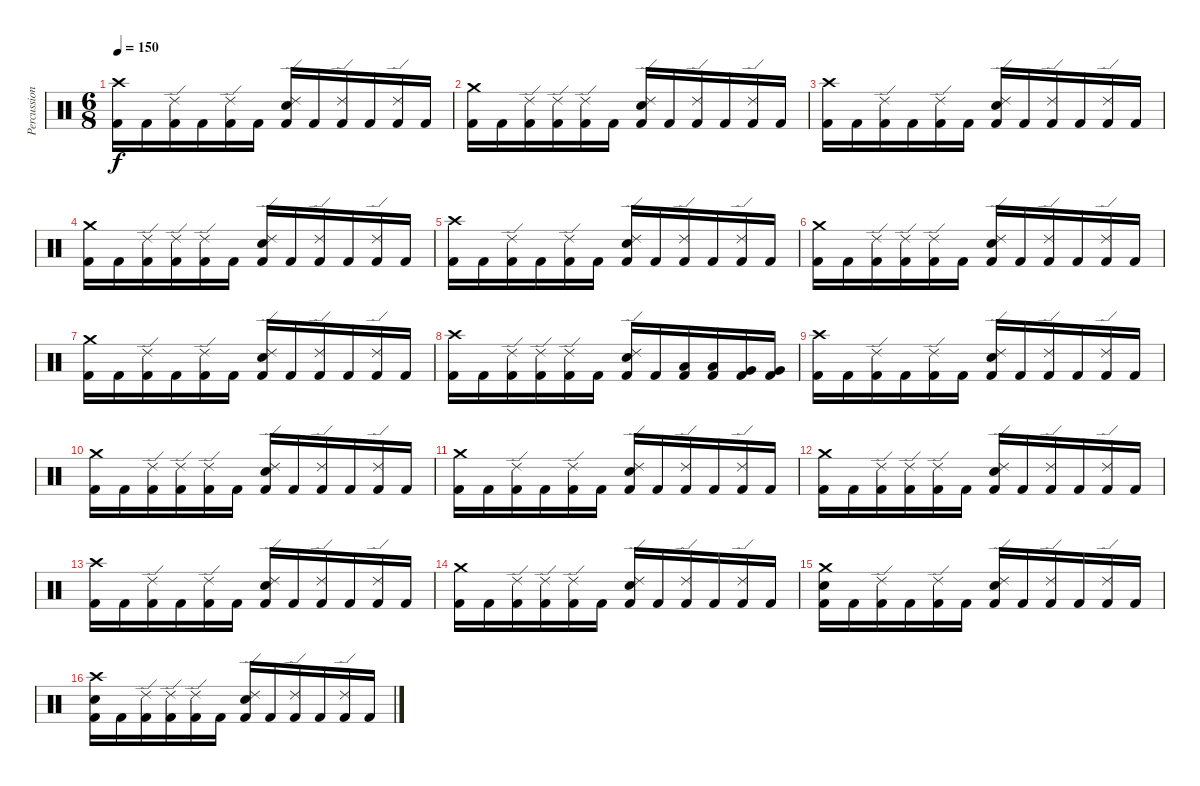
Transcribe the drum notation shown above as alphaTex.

\track ("Percussion" "Percussion") {instrument percussion}
\staff {score}
\articulation defaults
\ts (6 8)
\tempo 150
\clef neutral
\ks c
("Crash high (hit)" "Kick (hit) 2").16{dy f} "Kick (hit) 2".16 ("Ride (edge) 2" "Kick (hit) 2").16 "Kick (hit) 2".16 ("Ride (edge) 2" "Kick (hit) 2").16 "Kick (hit) 2".16 ("Ride (edge) 2" "Electric Snare (hit)" "Kick (hit) 2").16 "Kick (hit) 2".16 ("Ride (edge) 2" "Kick (hit) 2").16 "Kick (hit) 2".16 ("Ride (edge) 2" "Kick (hit) 2").16 "Kick (hit) 2".16 |
("Crash medium (hit)" "Kick (hit) 2").16 "Kick (hit) 2".16 ("Ride (edge) 2" "Kick (hit) 2").16 ("Ride (edge) 2" "Kick (hit) 2").16 ("Ride (edge) 2" "Kick (hit) 2").16 "Kick (hit) 2".16 ("Ride (edge) 2" "Electric Snare (hit)" "Kick (hit) 2").16 "Kick (hit) 2".16 ("Ride (edge) 2" "Kick (hit) 2").16 "Kick (hit) 2".16 ("Ride (edge) 2" "Kick (hit) 2").16 "Kick (hit) 2".16 |
("Crash high (hit)" "Kick (hit) 2").16 "Kick (hit) 2".16 ("Ride (edge) 2" "Kick (hit) 2").16 "Kick (hit) 2".16 ("Ride (edge) 2" "Kick (hit) 2").16 "Kick (hit) 2".16 ("Ride (edge) 2" "Electric Snare (hit)" "Kick (hit) 2").16 "Kick (hit) 2".16 ("Ride (edge) 2" "Kick (hit) 2").16 "Kick (hit) 2".16 ("Ride (edge) 2" "Kick (hit) 2").16 "Kick (hit) 2".16 |
("Crash medium (hit)" "Kick (hit) 2").16 "Kick (hit) 2".16 ("Ride (edge) 2" "Kick (hit) 2").16 ("Ride (edge) 2" "Kick (hit) 2").16 ("Ride (edge) 2" "Kick (hit) 2").16 "Kick (hit) 2".16 ("Ride (edge) 2" "Electric Snare (hit)" "Kick (hit) 2").16 "Kick (hit) 2".16 ("Ride (edge) 2" "Kick (hit) 2").16 "Kick (hit) 2".16 ("Ride (edge) 2" "Kick (hit) 2").16 "Kick (hit) 2".16 |
("Crash high (hit)" "Kick (hit) 2").16 "Kick (hit) 2".16 ("Ride (edge) 2" "Kick (hit) 2").16 "Kick (hit) 2".16 ("Ride (edge) 2" "Kick (hit) 2").16 "Kick (hit) 2".16 ("Ride (edge) 2" "Electric Snare (hit)" "Kick (hit) 2").16 "Kick (hit) 2".16 ("Ride (edge) 2" "Kick (hit) 2").16 "Kick (hit) 2".16 ("Ride (edge) 2" "Kick (hit) 2").16 "Kick (hit) 2".16 |
("Crash medium (hit)" "Kick (hit) 2").16 "Kick (hit) 2".16 ("Ride (edge) 2" "Kick (hit) 2").16 ("Ride (edge) 2" "Kick (hit) 2").16 ("Ride (edge) 2" "Kick (hit) 2").16 "Kick (hit) 2".16 ("Ride (edge) 2" "Electric Snare (hit)" "Kick (hit) 2").16 "Kick (hit) 2".16 ("Ride (edge) 2" "Kick (hit) 2").16 "Kick (hit) 2".16 ("Ride (edge) 2" "Kick (hit) 2").16 "Kick (hit) 2".16 |
("Crash medium (hit)" "Kick (hit) 2").16 "Kick (hit) 2".16 ("Ride (edge) 2" "Kick (hit) 2").16 "Kick (hit) 2".16 ("Ride (edge) 2" "Kick (hit) 2").16 "Kick (hit) 2".16 ("Ride (edge) 2" "Electric Snare (hit)" "Kick (hit) 2").16 "Kick (hit) 2".16 ("Ride (edge) 2" "Kick (hit) 2").16 "Kick (hit) 2".16 ("Ride (edge) 2" "Kick (hit) 2").16 "Kick (hit) 2".16 |
("Crash high (hit)" "Kick (hit) 2").16 "Kick (hit) 2".16 ("Ride (edge) 2" "Kick (hit) 2").16 ("Ride (edge) 2" "Kick (hit) 2").16 ("Ride (edge) 2" "Kick (hit) 2").16 "Kick (hit) 2".16 ("Ride (edge) 2" "Electric Snare (hit)" "Kick (hit) 2").16 "Kick (hit) 2".16 ("Low Tom (hit)" "Kick (hit) 2").16 ("Low Tom (hit)" "Kick (hit) 2").16 ("Very Low Tom (hit)" "Kick (hit) 2").16 ("Very Low Tom (hit)" "Kick (hit) 2").16 |
("Crash high (hit)" "Kick (hit) 2").16 "Kick (hit) 2".16 ("Ride (edge) 2" "Kick (hit) 2").16 "Kick (hit) 2".16 ("Ride (edge) 2" "Kick (hit) 2").16 "Kick (hit) 2".16 ("Ride (edge) 2" "Electric Snare (hit)" "Kick (hit) 2").16 "Kick (hit) 2".16 ("Ride (edge) 2" "Kick (hit) 2").16 "Kick (hit) 2".16 ("Ride (edge) 2" "Kick (hit) 2").16 "Kick (hit) 2".16 |
("Crash medium (hit)" "Kick (hit) 2").16 "Kick (hit) 2".16 ("Ride (edge) 2" "Kick (hit) 2").16 ("Ride (edge) 2" "Kick (hit) 2").16 ("Ride (edge) 2" "Kick (hit) 2").16 "Kick (hit) 2".16 ("Ride (edge) 2" "Electric Snare (hit)" "Kick (hit) 2").16 "Kick (hit) 2".16 ("Ride (edge) 2" "Kick (hit) 2").16 "Kick (hit) 2".16 ("Ride (edge) 2" "Kick (hit) 2").16 "Kick (hit) 2".16 |
("Crash medium (hit)" "Kick (hit) 2").16 "Kick (hit) 2".16 ("Ride (edge) 2" "Kick (hit) 2").16 "Kick (hit) 2".16 ("Ride (edge) 2" "Kick (hit) 2").16 "Kick (hit) 2".16 ("Ride (edge) 2" "Electric Snare (hit)" "Kick (hit) 2").16 "Kick (hit) 2".16 ("Ride (edge) 2" "Kick (hit) 2").16 "Kick (hit) 2".16 ("Ride (edge) 2" "Kick (hit) 2").16 "Kick (hit) 2".16 |
("Crash medium (hit)" "Kick (hit) 2").16 "Kick (hit) 2".16 ("Ride (edge) 2" "Kick (hit) 2").16 ("Ride (edge) 2" "Kick (hit) 2").16 ("Ride (edge) 2" "Kick (hit) 2").16 "Kick (hit) 2".16 ("Ride (edge) 2" "Electric Snare (hit)" "Kick (hit) 2").16 "Kick (hit) 2".16 ("Ride (edge) 2" "Kick (hit) 2").16 "Kick (hit) 2".16 ("Ride (edge) 2" "Kick (hit) 2").16 "Kick (hit) 2".16 |
("Crash high (hit)" "Kick (hit) 2").16 "Kick (hit) 2".16 ("Ride (edge) 2" "Kick (hit) 2").16 "Kick (hit) 2".16 ("Ride (edge) 2" "Kick (hit) 2").16 "Kick (hit) 2".16 ("Ride (edge) 2" "Electric Snare (hit)" "Kick (hit) 2").16 "Kick (hit) 2".16 ("Ride (edge) 2" "Kick (hit) 2").16 "Kick (hit) 2".16 ("Ride (edge) 2" "Kick (hit) 2").16 "Kick (hit) 2".16 |
("Crash medium (hit)" "Kick (hit) 2").16 "Kick (hit) 2".16 ("Ride (edge) 2" "Kick (hit) 2").16 ("Ride (edge) 2" "Kick (hit) 2").16 ("Ride (edge) 2" "Kick (hit) 2").16 "Kick (hit) 2".16 ("Ride (edge) 2" "Electric Snare (hit)" "Kick (hit) 2").16 "Kick (hit) 2".16 ("Ride (edge) 2" "Kick (hit) 2").16 "Kick (hit) 2".16 ("Ride (edge) 2" "Kick (hit) 2").16 "Kick (hit) 2".16 |
("Crash medium (hit)" "Electric Snare (hit)" "Kick (hit) 2").16 "Kick (hit) 2".16 ("Ride (edge) 2" "Kick (hit) 2").16 "Kick (hit) 2".16 ("Ride (edge) 2" "Kick (hit) 2").16 "Kick (hit) 2".16 ("Ride (edge) 2" "Electric Snare (hit)" "Kick (hit) 2").16 "Kick (hit) 2".16 ("Ride (edge) 2" "Kick (hit) 2").16 "Kick (hit) 2".16 ("Ride (edge) 2" "Kick (hit) 2").16 "Kick (hit) 2".16 |
("Crash high (hit)" "Electric Snare (hit)" "Kick (hit) 2").16 "Kick (hit) 2".16 ("Ride (edge) 2" "Kick (hit) 2").16 ("Ride (edge) 2" "Kick (hit) 2").16 ("Ride (edge) 2" "Kick (hit) 2").16 "Kick (hit) 2".16 ("Ride (edge) 2" "Electric Snare (hit)" "Kick (hit) 2").16 "Kick (hit) 2".16 ("Ride (edge) 2" "Kick (hit) 2").16 "Kick (hit) 2".16 ("Ride (edge) 2" "Kick (hit) 2").16 "Kick (hit) 2".16
